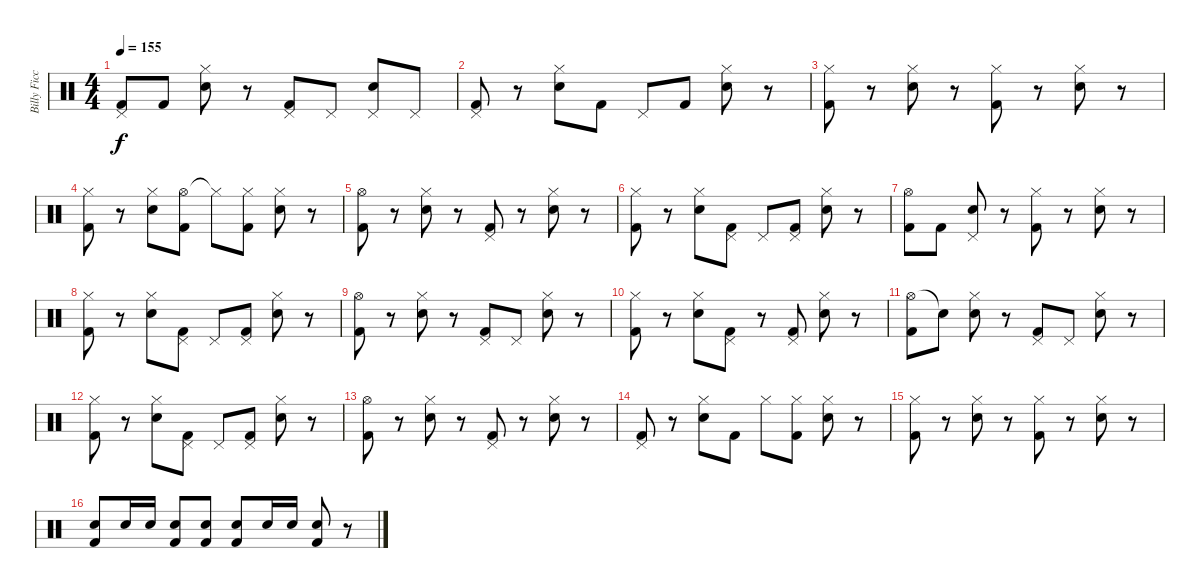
\track ("Billy Ficca" "Billy Ficc") {instrument percussion}
\staff {score}
\articulation defaults
\ts (4 4)
\tempo 155
\clef neutral
\ks c
("Pedal Hi-Hat (hit)" "Kick (hit) 2").8{dy f} "Kick (hit) 2".8 ("Hi-Hat (closed)" "Electric Snare (hit)").8 r.8 ("Pedal Hi-Hat (hit)" "Kick (hit) 2").8 "Pedal Hi-Hat (hit)".8 ("Pedal Hi-Hat (hit)" "Electric Snare (hit)").8 "Pedal Hi-Hat (hit)".8 |
("Pedal Hi-Hat (hit)" "Kick (hit) 2").8 r.8 ("Hi-Hat (closed)" "Electric Snare (hit)").8 "Kick (hit) 2".8 "Pedal Hi-Hat (hit)".8 "Kick (hit) 2".8 ("Hi-Hat (closed)" "Electric Snare (hit)").8 r.8 |
("Hi-Hat (closed)" "Kick (hit) 2").8 r.8 ("Hi-Hat (closed)" "Electric Snare (hit)").8 r.8 ("Hi-Hat (closed)" "Kick (hit) 2").8 r.8 ("Hi-Hat (closed)" "Electric Snare (hit)").8 r.8 |
("Hi-Hat (closed)" "Kick (hit) 2").8 r.8 ("Hi-Hat (closed)" "Electric Snare (hit)").8 ("Hi-Hat (open)" "Kick (hit) 2").8 "Hi-Hat (closed)"{t}.8 ("Hi-Hat (closed)" "Kick (hit) 2").8 ("Hi-Hat (closed)" "Electric Snare (hit)").8 r.8 |
("Hi-Hat (open)" "Kick (hit) 2").8 r.8 ("Hi-Hat (closed)" "Electric Snare (hit)").8 r.8 ("Pedal Hi-Hat (hit)" "Kick (hit) 2").8 r.8 ("Hi-Hat (closed)" "Electric Snare (hit)").8 r.8 |
("Hi-Hat (closed)" "Kick (hit) 2").8 r.8 ("Hi-Hat (closed)" "Electric Snare (hit)").8 ("Pedal Hi-Hat (hit)" "Kick (hit) 2").8 "Pedal Hi-Hat (hit)".8 ("Pedal Hi-Hat (hit)" "Kick (hit) 2").8 ("Hi-Hat (closed)" "Electric Snare (hit)").8 r.8 |
("Hi-Hat (open)" "Kick (hit) 2").8 "Kick (hit) 2".8 ("Pedal Hi-Hat (hit)" "Electric Snare (hit)").8 r.8 ("Hi-Hat (closed)" "Kick (hit) 2").8 r.8 ("Hi-Hat (closed)" "Electric Snare (hit)").8 r.8 |
("Hi-Hat (closed)" "Kick (hit) 2").8 r.8 ("Hi-Hat (closed)" "Electric Snare (hit)").8 ("Pedal Hi-Hat (hit)" "Kick (hit) 2").8 "Pedal Hi-Hat (hit)".8 ("Pedal Hi-Hat (hit)" "Kick (hit) 2").8 ("Hi-Hat (closed)" "Electric Snare (hit)").8 r.8 |
("Hi-Hat (open)" "Kick (hit) 2").8 r.8 ("Hi-Hat (closed)" "Electric Snare (hit)").8 r.8 ("Pedal Hi-Hat (hit)" "Kick (hit) 2").8 "Pedal Hi-Hat (hit)".8 ("Hi-Hat (closed)" "Electric Snare (hit)").8 r.8 |
("Hi-Hat (closed)" "Kick (hit) 2").8 r.8 ("Hi-Hat (closed)" "Electric Snare (hit)").8 ("Pedal Hi-Hat (hit)" "Kick (hit) 2").8 r.8 ("Pedal Hi-Hat (hit)" "Kick (hit) 2").8 ("Hi-Hat (closed)" "Electric Snare (hit)").8 r.8 |
("Hi-Hat (open)" "Kick (hit) 2").8 "Snare (hit)"{t}.8 ("Hi-Hat (closed)" "Electric Snare (hit)").8 r.8 ("Pedal Hi-Hat (hit)" "Kick (hit) 2").8 "Pedal Hi-Hat (hit)".8 ("Hi-Hat (closed)" "Electric Snare (hit)").8 r.8 |
("Hi-Hat (closed)" "Kick (hit) 2").8 r.8 ("Hi-Hat (closed)" "Electric Snare (hit)").8 ("Pedal Hi-Hat (hit)" "Kick (hit) 2").8 "Pedal Hi-Hat (hit)".8 ("Pedal Hi-Hat (hit)" "Kick (hit) 2").8 ("Hi-Hat (closed)" "Electric Snare (hit)").8 r.8 |
("Hi-Hat (open)" "Kick (hit) 2").8 r.8 ("Hi-Hat (closed)" "Electric Snare (hit)").8 r.8 ("Pedal Hi-Hat (hit)" "Kick (hit) 2").8 r.8 ("Hi-Hat (closed)" "Electric Snare (hit)").8 r.8 |
("Pedal Hi-Hat (hit)" "Kick (hit) 2").8 r.8 ("Hi-Hat (closed)" "Electric Snare (hit)").8 "Kick (hit) 2".8 "Hi-Hat (closed)".8 ("Hi-Hat (closed)" "Kick (hit) 2").8 ("Hi-Hat (closed)" "Electric Snare (hit)").8 r.8 |
("Hi-Hat (closed)" "Kick (hit) 2").8 r.8 ("Hi-Hat (closed)" "Electric Snare (hit)").8 r.8 ("Hi-Hat (closed)" "Kick (hit) 2").8 r.8 ("Hi-Hat (closed)" "Electric Snare (hit)").8 r.8 |
("Electric Snare (hit)" "Kick (hit) 2").8 "Electric Snare (hit)".16 "Electric Snare (hit)".16 ("Electric Snare (hit)" "Kick (hit) 2").8 ("Electric Snare (hit)" "Kick (hit) 2").8 ("Electric Snare (hit)" "Kick (hit) 2").8 "Electric Snare (hit)".16 "Electric Snare (hit)".16 ("Electric Snare (hit)" "Kick (hit) 2").8 r.8
